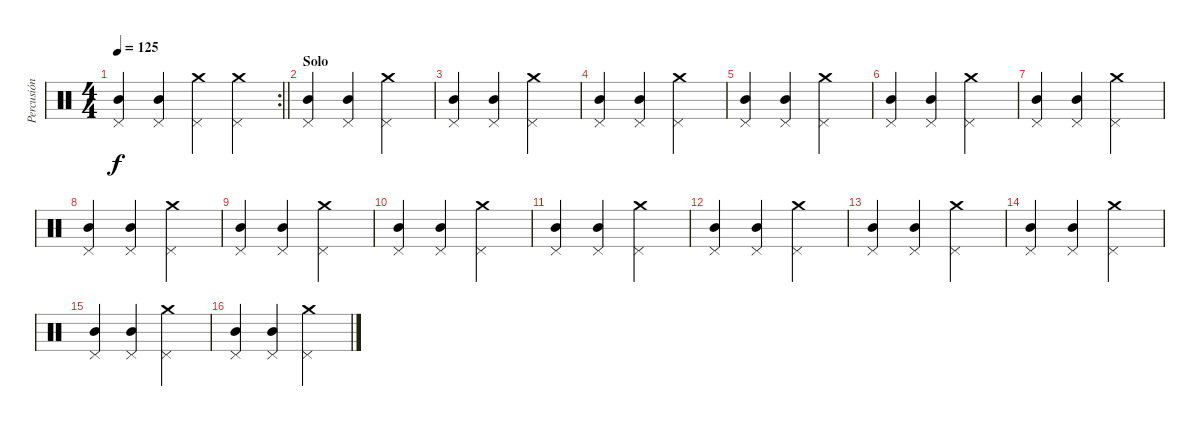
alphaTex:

\track ("Percusión" "Percusión") {instrument percussion}
\staff {score}
\articulation defaults
\rc 2
\ts (4 4)
\tempo 125
\clef neutral
\barLineRight lightlight
\ks c
("Pedal Hi-Hat (hit)" "Mid Tom (hit)").4{dy f} ("Pedal Hi-Hat (hit)" "Mid Tom (hit)").4 ("Crash medium (hit)" "Pedal Hi-Hat (hit)").4 ("Crash medium (hit)" "Pedal Hi-Hat (hit)").4 |
\section ("" "Solo")
("Pedal Hi-Hat (hit)" "Mid Tom (hit)").4 ("Pedal Hi-Hat (hit)" "Mid Tom (hit)").4 ("Crash medium (hit)" "Pedal Hi-Hat (hit)").2 |
("Pedal Hi-Hat (hit)" "Mid Tom (hit)").4 ("Pedal Hi-Hat (hit)" "Mid Tom (hit)").4 ("Crash medium (hit)" "Pedal Hi-Hat (hit)").2 |
("Pedal Hi-Hat (hit)" "Mid Tom (hit)").4 ("Pedal Hi-Hat (hit)" "Mid Tom (hit)").4 ("Crash medium (hit)" "Pedal Hi-Hat (hit)").2 |
("Pedal Hi-Hat (hit)" "Mid Tom (hit)").4 ("Pedal Hi-Hat (hit)" "Mid Tom (hit)").4 ("Crash medium (hit)" "Pedal Hi-Hat (hit)").2 |
("Pedal Hi-Hat (hit)" "Mid Tom (hit)").4 ("Pedal Hi-Hat (hit)" "Mid Tom (hit)").4 ("Crash medium (hit)" "Pedal Hi-Hat (hit)").2 |
("Pedal Hi-Hat (hit)" "Mid Tom (hit)").4 ("Pedal Hi-Hat (hit)" "Mid Tom (hit)").4 ("Crash medium (hit)" "Pedal Hi-Hat (hit)").2 |
("Pedal Hi-Hat (hit)" "Mid Tom (hit)").4 ("Pedal Hi-Hat (hit)" "Mid Tom (hit)").4 ("Crash medium (hit)" "Pedal Hi-Hat (hit)").2 |
("Pedal Hi-Hat (hit)" "Mid Tom (hit)").4 ("Pedal Hi-Hat (hit)" "Mid Tom (hit)").4 ("Crash medium (hit)" "Pedal Hi-Hat (hit)").2 |
("Pedal Hi-Hat (hit)" "Mid Tom (hit)").4 ("Pedal Hi-Hat (hit)" "Mid Tom (hit)").4 ("Crash medium (hit)" "Pedal Hi-Hat (hit)").2 |
("Pedal Hi-Hat (hit)" "Mid Tom (hit)").4 ("Pedal Hi-Hat (hit)" "Mid Tom (hit)").4 ("Crash medium (hit)" "Pedal Hi-Hat (hit)").2 |
("Pedal Hi-Hat (hit)" "Mid Tom (hit)").4 ("Pedal Hi-Hat (hit)" "Mid Tom (hit)").4 ("Crash medium (hit)" "Pedal Hi-Hat (hit)").2 |
("Pedal Hi-Hat (hit)" "Mid Tom (hit)").4 ("Pedal Hi-Hat (hit)" "Mid Tom (hit)").4 ("Crash medium (hit)" "Pedal Hi-Hat (hit)").2 |
("Pedal Hi-Hat (hit)" "Mid Tom (hit)").4 ("Pedal Hi-Hat (hit)" "Mid Tom (hit)").4 ("Crash medium (hit)" "Pedal Hi-Hat (hit)").2 |
("Pedal Hi-Hat (hit)" "Mid Tom (hit)").4 ("Pedal Hi-Hat (hit)" "Mid Tom (hit)").4 ("Crash medium (hit)" "Pedal Hi-Hat (hit)").2 |
("Pedal Hi-Hat (hit)" "Mid Tom (hit)").4 ("Pedal Hi-Hat (hit)" "Mid Tom (hit)").4 ("Crash medium (hit)" "Pedal Hi-Hat (hit)").2
